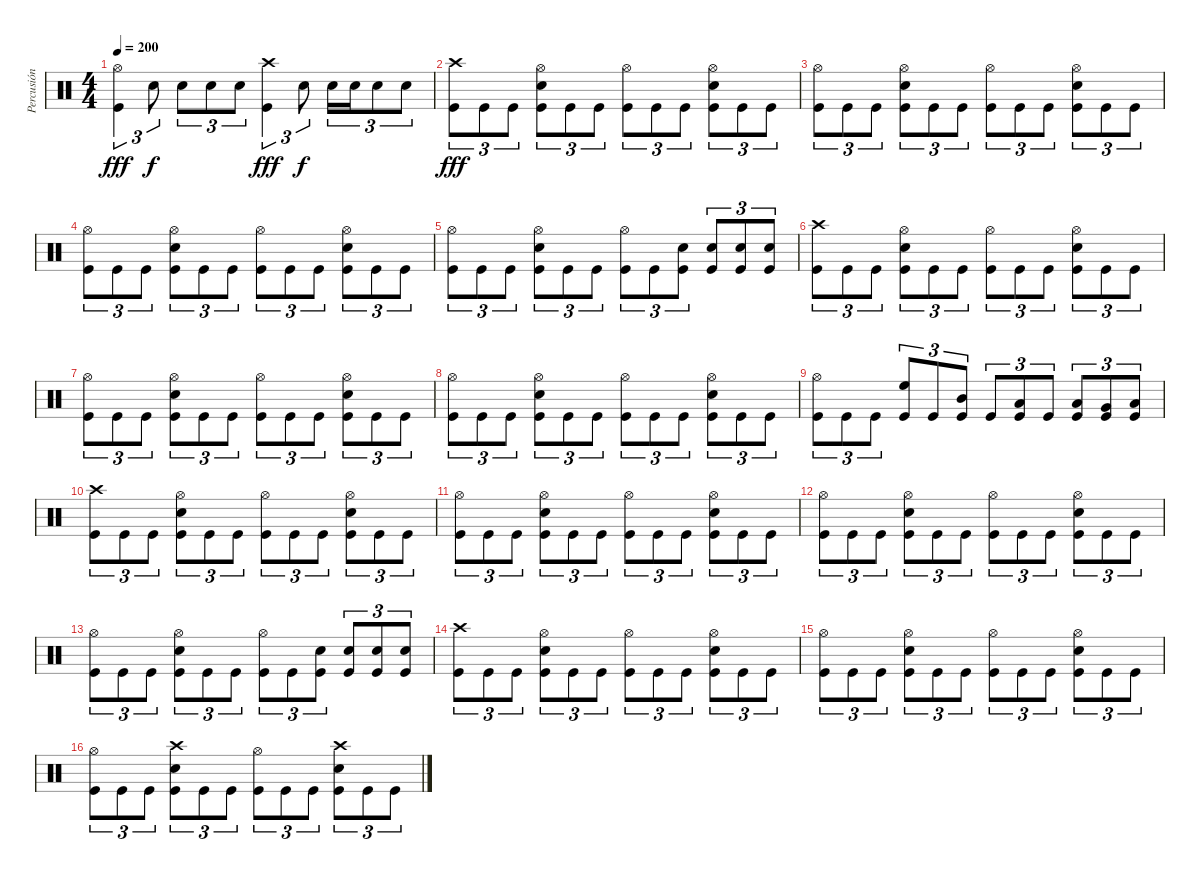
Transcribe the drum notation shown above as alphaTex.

\track ("Percusión" "Percusión") {instrument percussion}
\staff {score}
\articulation defaults
\ts (4 4)
\tempo 200
\clef neutral
\ks c
("Hi-Hat (open)" "Kick (hit)").4{tu (3 2) dy fff} "Electric Snare (hit)".8{tu (3 2) dy f} "Electric Snare (hit)".8{tu (3 2)} "Electric Snare (hit)".8{tu (3 2)} "Electric Snare (hit)".8{tu (3 2)} ("Crash high (hit)" "Kick (hit)").4{tu (3 2) dy fff} "Electric Snare (hit)".8{tu (3 2) dy f} "Electric Snare (hit)".16{tu (3 2)} "Electric Snare (hit)".16{tu (3 2)} "Electric Snare (hit)".8{tu (3 2)} "Electric Snare (hit)".8{tu (3 2)} |
("Crash high (hit)" "Kick (hit)").8{tu (3 2) dy fff} "Kick (hit)".8{tu (3 2)} "Kick (hit)".8{tu (3 2)} ("Hi-Hat (open)" "Electric Snare (hit)" "Kick (hit)").8{tu (3 2)} "Kick (hit)".8{tu (3 2)} "Kick (hit)".8{tu (3 2)} ("Hi-Hat (open)" "Kick (hit)").8{tu (3 2)} "Kick (hit)".8{tu (3 2)} "Kick (hit)".8{tu (3 2)} ("Hi-Hat (open)" "Electric Snare (hit)" "Kick (hit)").8{tu (3 2)} "Kick (hit)".8{tu (3 2)} "Kick (hit)".8{tu (3 2)} |
("Hi-Hat (open)" "Kick (hit)").8{tu (3 2)} "Kick (hit)".8{tu (3 2)} "Kick (hit)".8{tu (3 2)} ("Hi-Hat (open)" "Electric Snare (hit)" "Kick (hit)").8{tu (3 2)} "Kick (hit)".8{tu (3 2)} "Kick (hit)".8{tu (3 2)} ("Hi-Hat (open)" "Kick (hit)").8{tu (3 2)} "Kick (hit)".8{tu (3 2)} "Kick (hit)".8{tu (3 2)} ("Hi-Hat (open)" "Electric Snare (hit)" "Kick (hit)").8{tu (3 2)} "Kick (hit)".8{tu (3 2)} "Kick (hit)".8{tu (3 2)} |
("Hi-Hat (open)" "Kick (hit)").8{tu (3 2)} "Kick (hit)".8{tu (3 2)} "Kick (hit)".8{tu (3 2)} ("Hi-Hat (open)" "Electric Snare (hit)" "Kick (hit)").8{tu (3 2)} "Kick (hit)".8{tu (3 2)} "Kick (hit)".8{tu (3 2)} ("Hi-Hat (open)" "Kick (hit)").8{tu (3 2)} "Kick (hit)".8{tu (3 2)} "Kick (hit)".8{tu (3 2)} ("Hi-Hat (open)" "Electric Snare (hit)" "Kick (hit)").8{tu (3 2)} "Kick (hit)".8{tu (3 2)} "Kick (hit)".8{tu (3 2)} |
("Hi-Hat (open)" "Kick (hit)").8{tu (3 2)} "Kick (hit)".8{tu (3 2)} "Kick (hit)".8{tu (3 2)} ("Hi-Hat (open)" "Electric Snare (hit)" "Kick (hit)").8{tu (3 2)} "Kick (hit)".8{tu (3 2)} "Kick (hit)".8{tu (3 2)} ("Hi-Hat (open)" "Kick (hit)").8{tu (3 2)} "Kick (hit)".8{tu (3 2)} ("Electric Snare (hit)" "Kick (hit)").8{tu (3 2)} ("Electric Snare (hit)" "Kick (hit)").8{tu (3 2)} ("Electric Snare (hit)" "Kick (hit)").8{tu (3 2)} ("Electric Snare (hit)" "Kick (hit)").8{tu (3 2)} |
("Crash high (hit)" "Kick (hit)").8{tu (3 2)} "Kick (hit)".8{tu (3 2)} "Kick (hit)".8{tu (3 2)} ("Hi-Hat (open)" "Electric Snare (hit)" "Kick (hit)").8{tu (3 2)} "Kick (hit)".8{tu (3 2)} "Kick (hit)".8{tu (3 2)} ("Hi-Hat (open)" "Kick (hit)").8{tu (3 2)} "Kick (hit)".8{tu (3 2)} "Kick (hit)".8{tu (3 2)} ("Hi-Hat (open)" "Electric Snare (hit)" "Kick (hit)").8{tu (3 2)} "Kick (hit)".8{tu (3 2)} "Kick (hit)".8{tu (3 2)} |
("Hi-Hat (open)" "Kick (hit)").8{tu (3 2)} "Kick (hit)".8{tu (3 2)} "Kick (hit)".8{tu (3 2)} ("Hi-Hat (open)" "Electric Snare (hit)" "Kick (hit)").8{tu (3 2)} "Kick (hit)".8{tu (3 2)} "Kick (hit)".8{tu (3 2)} ("Hi-Hat (open)" "Kick (hit)").8{tu (3 2)} "Kick (hit)".8{tu (3 2)} "Kick (hit)".8{tu (3 2)} ("Hi-Hat (open)" "Electric Snare (hit)" "Kick (hit)").8{tu (3 2)} "Kick (hit)".8{tu (3 2)} "Kick (hit)".8{tu (3 2)} |
("Hi-Hat (open)" "Kick (hit)").8{tu (3 2)} "Kick (hit)".8{tu (3 2)} "Kick (hit)".8{tu (3 2)} ("Hi-Hat (open)" "Electric Snare (hit)" "Kick (hit)").8{tu (3 2)} "Kick (hit)".8{tu (3 2)} "Kick (hit)".8{tu (3 2)} ("Hi-Hat (open)" "Kick (hit)").8{tu (3 2)} "Kick (hit)".8{tu (3 2)} "Kick (hit)".8{tu (3 2)} ("Hi-Hat (open)" "Electric Snare (hit)" "Kick (hit)").8{tu (3 2)} "Kick (hit)".8{tu (3 2)} "Kick (hit)".8{tu (3 2)} |
("Hi-Hat (open)" "Kick (hit)").8{tu (3 2)} "Kick (hit)".8{tu (3 2)} "Kick (hit)".8{tu (3 2)} ("High Floor Tom (hit)" "Kick (hit)").8{tu (3 2)} "Kick (hit)".8{tu (3 2)} ("Mid Tom (hit)" "Kick (hit)").8{tu (3 2)} "Kick (hit)".8{tu (3 2)} ("Low Tom (hit)" "Kick (hit)").8{tu (3 2)} "Kick (hit)".8{tu (3 2)} ("Low Tom (hit)" "Kick (hit)").8{tu (3 2)} ("Very Low Tom (hit)" "Kick (hit)").8{tu (3 2)} ("Low Floor Tom (hit)" "Kick (hit)").8{tu (3 2)} |
("Crash high (hit)" "Kick (hit)").8{tu (3 2)} "Kick (hit)".8{tu (3 2)} "Kick (hit)".8{tu (3 2)} ("Hi-Hat (open)" "Electric Snare (hit)" "Kick (hit)").8{tu (3 2)} "Kick (hit)".8{tu (3 2)} "Kick (hit)".8{tu (3 2)} ("Hi-Hat (open)" "Kick (hit)").8{tu (3 2)} "Kick (hit)".8{tu (3 2)} "Kick (hit)".8{tu (3 2)} ("Hi-Hat (open)" "Electric Snare (hit)" "Kick (hit)").8{tu (3 2)} "Kick (hit)".8{tu (3 2)} "Kick (hit)".8{tu (3 2)} |
("Hi-Hat (open)" "Kick (hit)").8{tu (3 2)} "Kick (hit)".8{tu (3 2)} "Kick (hit)".8{tu (3 2)} ("Hi-Hat (open)" "Electric Snare (hit)" "Kick (hit)").8{tu (3 2)} "Kick (hit)".8{tu (3 2)} "Kick (hit)".8{tu (3 2)} ("Hi-Hat (open)" "Kick (hit)").8{tu (3 2)} "Kick (hit)".8{tu (3 2)} "Kick (hit)".8{tu (3 2)} ("Hi-Hat (open)" "Electric Snare (hit)" "Kick (hit)").8{tu (3 2)} "Kick (hit)".8{tu (3 2)} "Kick (hit)".8{tu (3 2)} |
("Hi-Hat (open)" "Kick (hit)").8{tu (3 2)} "Kick (hit)".8{tu (3 2)} "Kick (hit)".8{tu (3 2)} ("Hi-Hat (open)" "Electric Snare (hit)" "Kick (hit)").8{tu (3 2)} "Kick (hit)".8{tu (3 2)} "Kick (hit)".8{tu (3 2)} ("Hi-Hat (open)" "Kick (hit)").8{tu (3 2)} "Kick (hit)".8{tu (3 2)} "Kick (hit)".8{tu (3 2)} ("Hi-Hat (open)" "Electric Snare (hit)" "Kick (hit)").8{tu (3 2)} "Kick (hit)".8{tu (3 2)} "Kick (hit)".8{tu (3 2)} |
("Hi-Hat (open)" "Kick (hit)").8{tu (3 2)} "Kick (hit)".8{tu (3 2)} "Kick (hit)".8{tu (3 2)} ("Hi-Hat (open)" "Electric Snare (hit)" "Kick (hit)").8{tu (3 2)} "Kick (hit)".8{tu (3 2)} "Kick (hit)".8{tu (3 2)} ("Hi-Hat (open)" "Kick (hit)").8{tu (3 2)} "Kick (hit)".8{tu (3 2)} ("Electric Snare (hit)" "Kick (hit)").8{tu (3 2)} ("Electric Snare (hit)" "Kick (hit)").8{tu (3 2)} ("Electric Snare (hit)" "Kick (hit)").8{tu (3 2)} ("Electric Snare (hit)" "Kick (hit)").8{tu (3 2)} |
("Crash high (hit)" "Kick (hit)").8{tu (3 2)} "Kick (hit)".8{tu (3 2)} "Kick (hit)".8{tu (3 2)} ("Hi-Hat (open)" "Electric Snare (hit)" "Kick (hit)").8{tu (3 2)} "Kick (hit)".8{tu (3 2)} "Kick (hit)".8{tu (3 2)} ("Hi-Hat (open)" "Kick (hit)").8{tu (3 2)} "Kick (hit)".8{tu (3 2)} "Kick (hit)".8{tu (3 2)} ("Hi-Hat (open)" "Electric Snare (hit)" "Kick (hit)").8{tu (3 2)} "Kick (hit)".8{tu (3 2)} "Kick (hit)".8{tu (3 2)} |
("Hi-Hat (open)" "Kick (hit)").8{tu (3 2)} "Kick (hit)".8{tu (3 2)} "Kick (hit)".8{tu (3 2)} ("Hi-Hat (open)" "Electric Snare (hit)" "Kick (hit)").8{tu (3 2)} "Kick (hit)".8{tu (3 2)} "Kick (hit)".8{tu (3 2)} ("Hi-Hat (open)" "Kick (hit)").8{tu (3 2)} "Kick (hit)".8{tu (3 2)} "Kick (hit)".8{tu (3 2)} ("Hi-Hat (open)" "Electric Snare (hit)" "Kick (hit)").8{tu (3 2)} "Kick (hit)".8{tu (3 2)} "Kick (hit)".8{tu (3 2)} |
("Hi-Hat (open)" "Kick (hit)").8{tu (3 2)} "Kick (hit)".8{tu (3 2)} "Kick (hit)".8{tu (3 2)} ("Crash high (hit)" "Electric Snare (hit)" "Kick (hit)").8{tu (3 2)} "Kick (hit)".8{tu (3 2)} "Kick (hit)".8{tu (3 2)} ("Hi-Hat (open)" "Kick (hit)").8{tu (3 2)} "Kick (hit)".8{tu (3 2)} "Kick (hit)".8{tu (3 2)} ("Crash high (hit)" "Electric Snare (hit)" "Kick (hit)").8{tu (3 2)} "Kick (hit)".8{tu (3 2)} "Kick (hit)".8{tu (3 2)}
